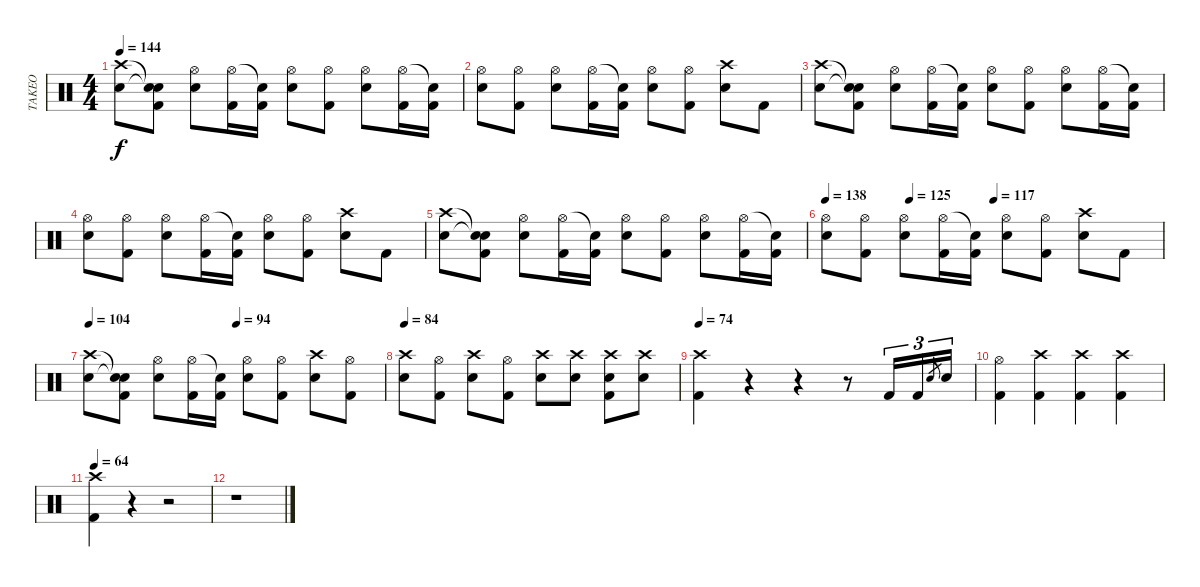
\track ("TAKEO" "TAKEO") {instrument percussion}
\staff {score}
\articulation defaults
\ts (4 4)
\tempo 144
\clef neutral
\ks c
("Crash high (hit)" "Electric Snare (hit)").8{dy f} ("Snare (hit)"{t} "Snare (hit)"{t} "Kick (hit) 2").8 ("Hi-Hat (open)" "Electric Snare (hit)").8 ("Hi-Hat (open)" "Kick (hit) 2").16 ("Snare (hit)"{t} "Kick (hit) 2").16 ("Hi-Hat (open)" "Electric Snare (hit)").8 ("Hi-Hat (open)" "Kick (hit) 2").8 ("Hi-Hat (open)" "Electric Snare (hit)").8 ("Hi-Hat (open)" "Kick (hit) 2").16 ("Snare (hit)"{t} "Kick (hit) 2").16 |
("Hi-Hat (open)" "Electric Snare (hit)").8 ("Hi-Hat (open)" "Kick (hit) 2").8 ("Hi-Hat (open)" "Electric Snare (hit)").8 ("Hi-Hat (open)" "Kick (hit) 2").16 ("Snare (hit)"{t} "Kick (hit) 2").16 ("Hi-Hat (open)" "Electric Snare (hit)").8 ("Hi-Hat (open)" "Kick (hit) 2").8 ("Electric Snare (hit)" "Crash high (hit)").8 "Kick (hit) 2".8 |
("Crash high (hit)" "Electric Snare (hit)").8 ("Snare (hit)"{t} "Snare (hit)"{t} "Kick (hit) 2").8 ("Hi-Hat (open)" "Electric Snare (hit)").8 ("Hi-Hat (open)" "Kick (hit) 2").16 ("Snare (hit)"{t} "Kick (hit) 2").16 ("Hi-Hat (open)" "Electric Snare (hit)").8 ("Hi-Hat (open)" "Kick (hit) 2").8 ("Hi-Hat (open)" "Electric Snare (hit)").8 ("Hi-Hat (open)" "Kick (hit) 2").16 ("Snare (hit)"{t} "Kick (hit) 2").16 |
("Hi-Hat (open)" "Electric Snare (hit)").8 ("Hi-Hat (open)" "Kick (hit) 2").8 ("Hi-Hat (open)" "Electric Snare (hit)").8 ("Hi-Hat (open)" "Kick (hit) 2").16 ("Snare (hit)"{t} "Kick (hit) 2").16 ("Hi-Hat (open)" "Electric Snare (hit)").8 ("Hi-Hat (open)" "Kick (hit) 2").8 ("Electric Snare (hit)" "Crash high (hit)").8 "Kick (hit) 2".8 |
("Crash high (hit)" "Electric Snare (hit)").8 ("Snare (hit)"{t} "Snare (hit)"{t} "Kick (hit) 2").8 ("Hi-Hat (open)" "Electric Snare (hit)").8 ("Hi-Hat (open)" "Kick (hit) 2").16 ("Snare (hit)"{t} "Kick (hit) 2").16 ("Hi-Hat (open)" "Electric Snare (hit)").8 ("Hi-Hat (open)" "Kick (hit) 2").8 ("Hi-Hat (open)" "Electric Snare (hit)").8 ("Hi-Hat (open)" "Kick (hit) 2").16 ("Snare (hit)"{t} "Kick (hit) 2").16 |
\tempo 138
\tempo (125 0.25)
\tempo (117 0.5)
("Hi-Hat (open)" "Electric Snare (hit)").8 ("Hi-Hat (open)" "Kick (hit) 2").8 ("Hi-Hat (open)" "Electric Snare (hit)").8 ("Hi-Hat (open)" "Kick (hit) 2").16 ("Snare (hit)"{t} "Kick (hit) 2").16 ("Hi-Hat (open)" "Electric Snare (hit)").8 ("Hi-Hat (open)" "Kick (hit) 2").8 ("Electric Snare (hit)" "Crash high (hit)").8 "Kick (hit) 2".8 |
\tempo 104
\tempo (94 0.5)
("Crash high (hit)" "Electric Snare (hit)").8 ("Snare (hit)"{t} "Snare (hit)"{t} "Kick (hit) 2").8 ("Hi-Hat (open)" "Electric Snare (hit)").8 ("Hi-Hat (open)" "Kick (hit) 2").16 ("Snare (hit)"{t} "Kick (hit) 2").16 ("Hi-Hat (open)" "Electric Snare (hit)").8 ("Hi-Hat (open)" "Kick (hit) 2").8 ("Crash high (hit)" "Electric Snare (hit)").8 ("Hi-Hat (open)" "Kick (hit) 2").8 |
\tempo 84
("Crash high (hit)" "Electric Snare (hit)").8 ("Hi-Hat (open)" "Kick (hit) 2").8 ("Crash high (hit)" "Electric Snare (hit)").8 ("Hi-Hat (open)" "Kick (hit) 2").8 ("Crash high (hit)" "Electric Snare (hit)").8 ("Crash high (hit)" "Electric Snare (hit)").8 ("Crash high (hit)" "Electric Snare (hit)" "Kick (hit) 2").8 ("Crash high (hit)" "Electric Snare (hit)").8 |
\tempo 74
("Crash high (hit)" "Kick (hit) 2").4 r.4 r.4 r.8 "Kick (hit) 2".16{tu (3 2)} "Kick (hit) 2".16{tu (3 2)} "Electric Snare (hit)".8{gr} "Electric Snare (hit)".16{tu (3 2)} |
("Hi-Hat (open)" "Kick (hit) 2").4 ("Crash high (hit)" "Kick (hit) 2").4 ("Crash high (hit)" "Kick (hit) 2").4 ("Crash high (hit)" "Kick (hit) 2").4 |
\tempo 64
("Crash high (hit)" "Kick (hit) 2").4 r.4 r.2 |
r.1
